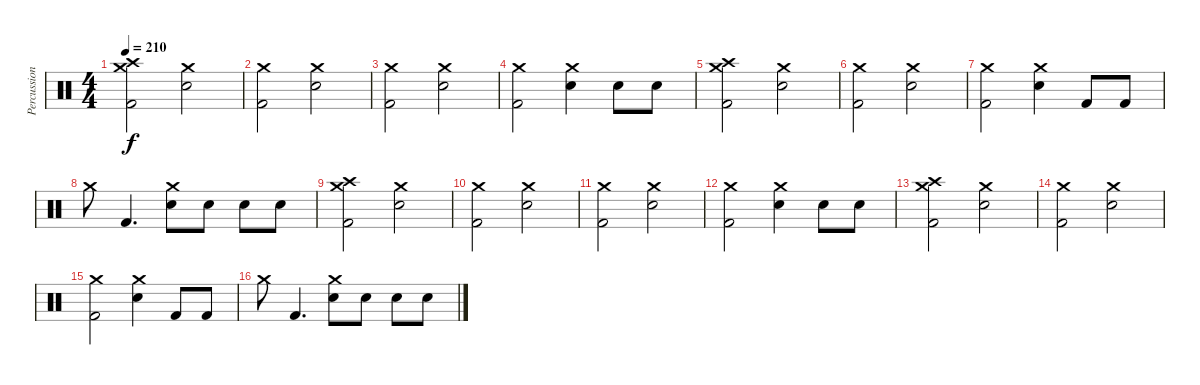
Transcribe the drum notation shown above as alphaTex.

\track ("Percussion" "Percussion") {instrument percussion}
\staff {score}
\articulation defaults
\ts (4 4)
\tempo 210
\clef neutral
\ks c
("Crash medium (hit)" "Crash high (hit)" "Kick (hit) 2").2{dy f} ("Crash medium (hit)" "Electric Snare (hit)").2 |
("Crash medium (hit)" "Kick (hit) 2").2 ("Crash medium (hit)" "Electric Snare (hit)").2 |
("Crash medium (hit)" "Kick (hit) 2").2 ("Crash medium (hit)" "Electric Snare (hit)").2 |
("Crash medium (hit)" "Kick (hit) 2").2 ("Crash medium (hit)" "Electric Snare (hit)").4 "Electric Snare (hit)".8 "Electric Snare (hit)".8 |
("Crash medium (hit)" "Crash high (hit)" "Kick (hit) 2").2 ("Crash medium (hit)" "Electric Snare (hit)").2 |
("Crash medium (hit)" "Kick (hit) 2").2 ("Crash medium (hit)" "Electric Snare (hit)").2 |
("Crash medium (hit)" "Kick (hit) 2").2 ("Crash medium (hit)" "Electric Snare (hit)").4 "Kick (hit) 2".8 "Kick (hit) 2".8 |
"Crash medium (hit)".8 "Kick (hit) 2".4{d} ("Crash medium (hit)" "Electric Snare (hit)").8 "Electric Snare (hit)".8 "Electric Snare (hit)".8 "Electric Snare (hit)".8 |
("Crash medium (hit)" "Crash high (hit)" "Kick (hit) 2").2 ("Crash medium (hit)" "Electric Snare (hit)").2 |
("Crash medium (hit)" "Kick (hit) 2").2 ("Crash medium (hit)" "Electric Snare (hit)").2 |
("Crash medium (hit)" "Kick (hit) 2").2 ("Crash medium (hit)" "Electric Snare (hit)").2 |
("Crash medium (hit)" "Kick (hit) 2").2 ("Crash medium (hit)" "Electric Snare (hit)").4 "Electric Snare (hit)".8 "Electric Snare (hit)".8 |
("Crash medium (hit)" "Crash high (hit)" "Kick (hit) 2").2 ("Crash medium (hit)" "Electric Snare (hit)").2 |
("Crash medium (hit)" "Kick (hit) 2").2 ("Crash medium (hit)" "Electric Snare (hit)").2 |
("Crash medium (hit)" "Kick (hit) 2").2 ("Crash medium (hit)" "Electric Snare (hit)").4 "Kick (hit) 2".8 "Kick (hit) 2".8 |
"Crash medium (hit)".8 "Kick (hit) 2".4{d} ("Crash medium (hit)" "Electric Snare (hit)").8 "Electric Snare (hit)".8 "Electric Snare (hit)".8 "Electric Snare (hit)".8
